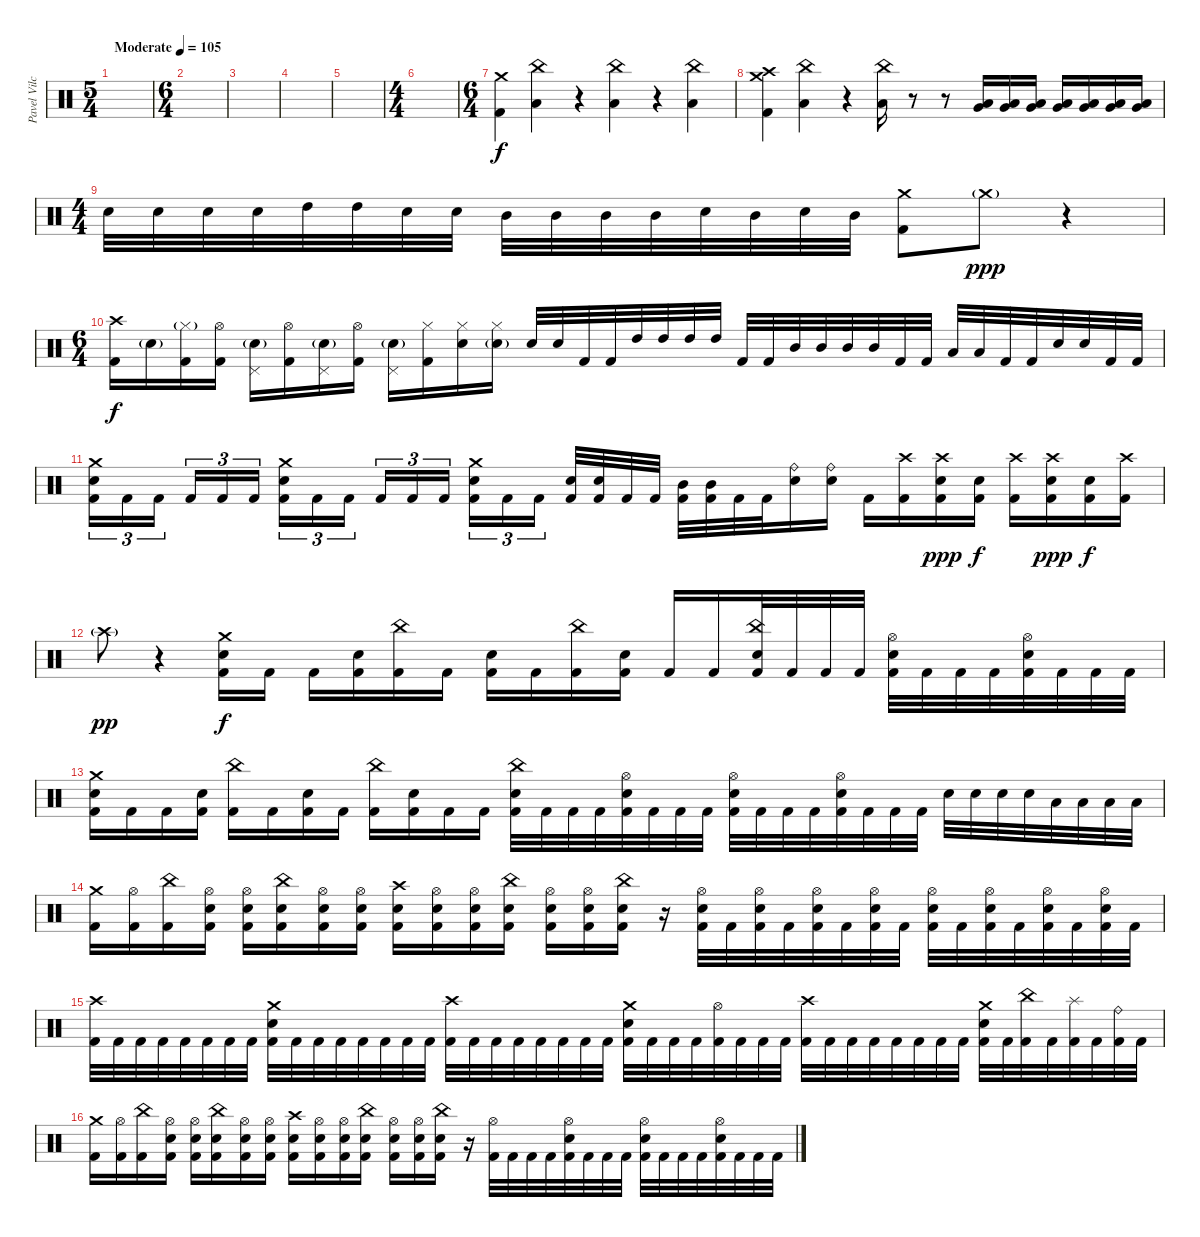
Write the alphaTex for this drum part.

\track ("Pavel Vilchytski " "Pavel Vilc") {instrument percussion}
\staff {score}
\articulation defaults
\ts (5 4)
\tempo (105 "Moderate")
\clef neutral
\ks c
|
\ts (6 4)
|
|
|
|
\ts (4 4)
|
\ts (6 4)
("Crash medium (hit)" "Kick (hit) 2").4 ("China (hit)" "Low Floor Tom (hit)").4 r.4 ("China (hit)" "Low Floor Tom (hit)").4 r.4 ("China (hit)" "Low Floor Tom (hit)").4 |
("Crash medium (hit)" "Crash high (hit)" "Kick (hit) 2").4 ("China (hit)" "Low Floor Tom (hit)").4 r.4 ("China (hit)" "Low Floor Tom (hit)").16 r.8 r.8 ("Low Tom (hit)" "Very Low Tom (hit)").16 ("Low Tom (hit)" "Very Low Tom (hit)").16 ("Low Tom (hit)" "Very Low Tom (hit)").16 ("Low Tom (hit)" "Very Low Tom (hit)").16 ("Low Tom (hit)" "Very Low Tom (hit)").16 ("Low Tom (hit)" "Very Low Tom (hit)").16 ("Low Tom (hit)" "Very Low Tom (hit)").16 |
\ts (4 4)
"Electric Snare (hit)".32 "Electric Snare (hit)".32 "Electric Snare (hit)".32 "Electric Snare (hit)".32 "High Tom (hit)".32 "High Tom (hit)".32 "Electric Snare (hit)".32 "Electric Snare (hit)".32 "Mid Tom (hit)".32 "Mid Tom (hit)".32 "Mid Tom (hit)".32 "Mid Tom (hit)".32 "Electric Snare (hit)".32 "Mid Tom (hit)".32 "Electric Snare (hit)".32 "Mid Tom (hit)".32 ("Crash medium (hit)" "Kick (hit) 2").8 "Crash medium (hit)"{g}.8{dy ppp} r.4 |
\ts (6 4)
("Kick (hit) 2" "Crash high (hit)").16{dy f} "Electric Snare (hit)"{g}.16 ("Kick (hit) 2" "Hi-Hat (closed)"{g}).16 ("Kick (hit) 2" "Hi-Hat (open)").16 ("Electric Snare (hit)"{g} "Pedal Hi-Hat (hit)").16 ("Kick (hit) 2" "Hi-Hat (open)").16 ("Electric Snare (hit)"{g} "Pedal Hi-Hat (hit)").16 ("Kick (hit) 2" "Hi-Hat (open)").16 ("Electric Snare (hit)"{g} "Pedal Hi-Hat (hit)").16 ("Kick (hit) 2" "Hi-Hat (closed)").16 ("Electric Snare (hit)" "Hi-Hat (closed)").16 ("Electric Snare (hit)"{g} "Hi-Hat (closed)").16 "Electric Snare (hit)".32 "Electric Snare (hit)".32 "Kick (hit) 2".32 "Kick (hit) 2".32 "High Tom (hit)".32 "High Tom (hit)".32 "High Tom (hit)".32 "High Tom (hit)".32 "Kick (hit) 2".32 "Kick (hit) 2".32 "Mid Tom (hit)".32 "Mid Tom (hit)".32 "Mid Tom (hit)".32 "Mid Tom (hit)".32 "Kick (hit) 2".32 "Kick (hit) 2".32 "Low Tom (hit)".32 "Low Tom (hit)".32 "Kick (hit) 2".32 "Kick (hit) 2".32 "Electric Snare (hit)".32 "Electric Snare (hit)".32 "Kick (hit) 2".32 "Kick (hit) 2".32 |
("Electric Snare (hit)" "Crash medium (hit)" "Kick (hit) 2").16{tu (3 2)} "Kick (hit) 2".16{tu (3 2)} "Kick (hit) 2".16{tu (3 2) beam splitsecondary} "Kick (hit) 2".16{tu (3 2)} "Kick (hit) 2".16{tu (3 2)} "Kick (hit) 2".16{tu (3 2) beam splitsecondary} ("Electric Snare (hit)" "Crash medium (hit)" "Kick (hit) 2").16{tu (3 2)} "Kick (hit) 2".16{tu (3 2)} "Kick (hit) 2".16{tu (3 2) beam splitsecondary} "Kick (hit) 2".16{tu (3 2)} "Kick (hit) 2".16{tu (3 2)} "Kick (hit) 2".16{tu (3 2) beam splitsecondary} ("Electric Snare (hit)" "Crash medium (hit)" "Kick (hit) 2").16{tu (3 2)} "Kick (hit) 2".16{tu (3 2)} "Kick (hit) 2".16{tu (3 2) beam splitsecondary} ("Electric Snare (hit)" "Kick (hit) 2").32 ("Electric Snare (hit)" "Kick (hit) 2").32 "Kick (hit) 2".32 "Kick (hit) 2".32 ("Mid Tom (hit)" "Kick (hit) 2").32 ("Mid Tom (hit)" "Kick (hit) 2").32 "Kick (hit) 2".32 "Kick (hit) 2".32 ("Ride (bell)" "Electric Snare (hit)").16 ("Ride (bell)" "Electric Snare (hit)").16 "Kick (hit) 2".16 ("Crash high (hit)" "Kick (hit) 2").16 ("Crash high (hit)" "Electric Snare (hit)" "Kick (hit) 2").16{dy ppp} ("Electric Snare (hit)" "Kick (hit) 2").16{dy f} ("Crash high (hit)" "Kick (hit) 2").16 ("Crash high (hit)" "Electric Snare (hit)" "Kick (hit) 2").16{dy ppp} ("Electric Snare (hit)" "Kick (hit) 2").16{dy f} ("Crash high (hit)" "Kick (hit) 2").16 |
"Crash high (hit)"{g}.8{dy pp} r.4 ("Crash medium (hit)" "Electric Snare (hit)" "Kick (hit) 2").16{dy f} "Kick (hit) 2".16 "Kick (hit) 2".16 ("Electric Snare (hit)" "Kick (hit) 2").16 ("China (hit)" "Kick (hit) 2").16 "Kick (hit) 2".16 ("Electric Snare (hit)" "Kick (hit) 2").16 "Kick (hit) 2".16 ("China (hit)" "Kick (hit) 2").16 ("Electric Snare (hit)" "Kick (hit) 2").16 "Kick (hit) 2".16 "Kick (hit) 2".16 ("China (hit)" "Electric Snare (hit)" "Kick (hit) 2").32 "Kick (hit) 2".32 "Kick (hit) 2".32 "Kick (hit) 2".32 ("Hi-Hat (open)" "Electric Snare (hit)" "Kick (hit) 2").32 "Kick (hit) 2".32 "Kick (hit) 2".32 "Kick (hit) 2".32 ("Hi-Hat (open)" "Electric Snare (hit)" "Kick (hit) 2").32 "Kick (hit) 2".32 "Kick (hit) 2".32 "Kick (hit) 2".32 |
("Crash medium (hit)" "Electric Snare (hit)" "Kick (hit) 2").16 "Kick (hit) 2".16 "Kick (hit) 2".16 ("Electric Snare (hit)" "Kick (hit) 2").16 ("China (hit)" "Kick (hit) 2").16 "Kick (hit) 2".16 ("Electric Snare (hit)" "Kick (hit) 2").16 "Kick (hit) 2".16 ("China (hit)" "Kick (hit) 2").16 ("Electric Snare (hit)" "Kick (hit) 2").16 "Kick (hit) 2".16 "Kick (hit) 2".16 ("China (hit)" "Electric Snare (hit)" "Kick (hit) 2").32 "Kick (hit) 2".32 "Kick (hit) 2".32 "Kick (hit) 2".32 ("Hi-Hat (open)" "Electric Snare (hit)" "Kick (hit) 2").32 "Kick (hit) 2".32 "Kick (hit) 2".32 "Kick (hit) 2".32 ("Hi-Hat (open)" "Electric Snare (hit)" "Kick (hit) 2").32 "Kick (hit) 2".32 "Kick (hit) 2".32 "Kick (hit) 2".32 ("Hi-Hat (open)" "Electric Snare (hit)" "Kick (hit) 2").32 "Kick (hit) 2".32 "Kick (hit) 2".32 "Kick (hit) 2".32 "Electric Snare (hit)".32 "Electric Snare (hit)".32 "Electric Snare (hit)".32 "Electric Snare (hit)".32 "Low Tom (hit)".32 "Low Tom (hit)".32 "Low Tom (hit)".32 "Low Tom (hit)".32 |
("Crash medium (hit)" "Kick (hit) 2").16 ("Hi-Hat (open)" "Kick (hit) 2").16 ("China (hit)" "Kick (hit) 2").16 ("Hi-Hat (open)" "Electric Snare (hit)" "Kick (hit) 2").16 ("Hi-Hat (open)" "Electric Snare (hit)" "Kick (hit) 2").16 ("China (hit)" "Electric Snare (hit)" "Kick (hit) 2").16 ("Hi-Hat (open)" "Electric Snare (hit)" "Kick (hit) 2").16 ("Hi-Hat (open)" "Electric Snare (hit)" "Kick (hit) 2").16 ("Crash high (hit)" "Electric Snare (hit)" "Kick (hit) 2").16 ("Hi-Hat (open)" "Electric Snare (hit)" "Kick (hit) 2").16 ("Hi-Hat (open)" "Electric Snare (hit)" "Kick (hit) 2").16 ("China (hit)" "Electric Snare (hit)" "Kick (hit) 2").16 ("Hi-Hat (open)" "Electric Snare (hit)" "Kick (hit) 2").16 ("Hi-Hat (open)" "Electric Snare (hit)" "Kick (hit) 2").16 ("China (hit)" "Electric Snare (hit)" "Kick (hit) 2").16 r.16 ("Hi-Hat (open)" "Electric Snare (hit)" "Kick (hit) 2").32 "Kick (hit) 2".32 ("Hi-Hat (open)" "Electric Snare (hit)" "Kick (hit) 2").32 "Kick (hit) 2".32 ("Hi-Hat (open)" "Electric Snare (hit)" "Kick (hit) 2").32 "Kick (hit) 2".32 ("Hi-Hat (open)" "Electric Snare (hit)" "Kick (hit) 2").32 "Kick (hit) 2".32 ("Hi-Hat (open)" "Electric Snare (hit)" "Kick (hit) 2").32 "Kick (hit) 2".32 ("Hi-Hat (open)" "Electric Snare (hit)" "Kick (hit) 2").32 "Kick (hit) 2".32 ("Hi-Hat (open)" "Electric Snare (hit)" "Kick (hit) 2").32 "Kick (hit) 2".32 ("Hi-Hat (open)" "Electric Snare (hit)" "Kick (hit) 2").32 "Kick (hit) 2".32 |
("Crash high (hit)" "Kick (hit) 2").32 "Kick (hit) 2".32 "Kick (hit) 2".32 "Kick (hit) 2".32 "Kick (hit) 2".32 "Kick (hit) 2".32 "Kick (hit) 2".32 "Kick (hit) 2".32 ("Crash medium (hit)" "Electric Snare (hit)" "Kick (hit) 2").32 "Kick (hit) 2".32 "Kick (hit) 2".32 "Kick (hit) 2".32 "Kick (hit) 2".32 "Kick (hit) 2".32 "Kick (hit) 2".32 "Kick (hit) 2".32 ("Crash high (hit)" "Kick (hit) 2").32 "Kick (hit) 2".32 "Kick (hit) 2".32 "Kick (hit) 2".32 "Kick (hit) 2".32 "Kick (hit) 2".32 "Kick (hit) 2".32 "Kick (hit) 2".32 ("Crash medium (hit)" "Electric Snare (hit)" "Kick (hit) 2").32 "Kick (hit) 2".32 "Kick (hit) 2".32 "Kick (hit) 2".32 ("Hi-Hat (open)" "Kick (hit) 2").32 "Kick (hit) 2".32 "Kick (hit) 2".32 "Kick (hit) 2".32 ("Crash high (hit)" "Kick (hit) 2").32 "Kick (hit) 2".32 "Kick (hit) 2".32 "Kick (hit) 2".32 "Kick (hit) 2".32 "Kick (hit) 2".32 "Kick (hit) 2".32 "Kick (hit) 2".32 ("Crash medium (hit)" "Electric Snare (hit)" "Kick (hit) 2").32 "Kick (hit) 2".32 ("China (hit)" "Kick (hit) 2").32 "Kick (hit) 2".32 ("Splash (hit)" "Kick (hit) 2").32 "Kick (hit) 2".32 ("Ride (bell)" "Kick (hit) 2").32 "Kick (hit) 2".32 |
("Crash medium (hit)" "Kick (hit) 2").16 ("Hi-Hat (open)" "Kick (hit) 2").16 ("China (hit)" "Kick (hit) 2").16 ("Hi-Hat (open)" "Electric Snare (hit)" "Kick (hit) 2").16 ("Hi-Hat (open)" "Electric Snare (hit)" "Kick (hit) 2").16 ("China (hit)" "Electric Snare (hit)" "Kick (hit) 2").16 ("Hi-Hat (open)" "Electric Snare (hit)" "Kick (hit) 2").16 ("Hi-Hat (open)" "Electric Snare (hit)" "Kick (hit) 2").16 ("Crash high (hit)" "Electric Snare (hit)" "Kick (hit) 2").16 ("Hi-Hat (open)" "Electric Snare (hit)" "Kick (hit) 2").16 ("Hi-Hat (open)" "Electric Snare (hit)" "Kick (hit) 2").16 ("China (hit)" "Electric Snare (hit)" "Kick (hit) 2").16 ("Hi-Hat (open)" "Electric Snare (hit)" "Kick (hit) 2").16 ("Hi-Hat (open)" "Electric Snare (hit)" "Kick (hit) 2").16 ("China (hit)" "Electric Snare (hit)" "Kick (hit) 2").16 r.16 ("Hi-Hat (open)" "Kick (hit) 2").32 "Kick (hit) 2".32 "Kick (hit) 2".32 "Kick (hit) 2".32 ("Hi-Hat (open)" "Electric Snare (hit)" "Kick (hit) 2").32 "Kick (hit) 2".32 "Kick (hit) 2".32 "Kick (hit) 2".32 ("Hi-Hat (open)" "Electric Snare (hit)" "Kick (hit) 2").32 "Kick (hit) 2".32 "Kick (hit) 2".32 "Kick (hit) 2".32 ("Hi-Hat (open)" "Electric Snare (hit)" "Kick (hit) 2").32 "Kick (hit) 2".32 "Kick (hit) 2".32 "Kick (hit) 2".32
